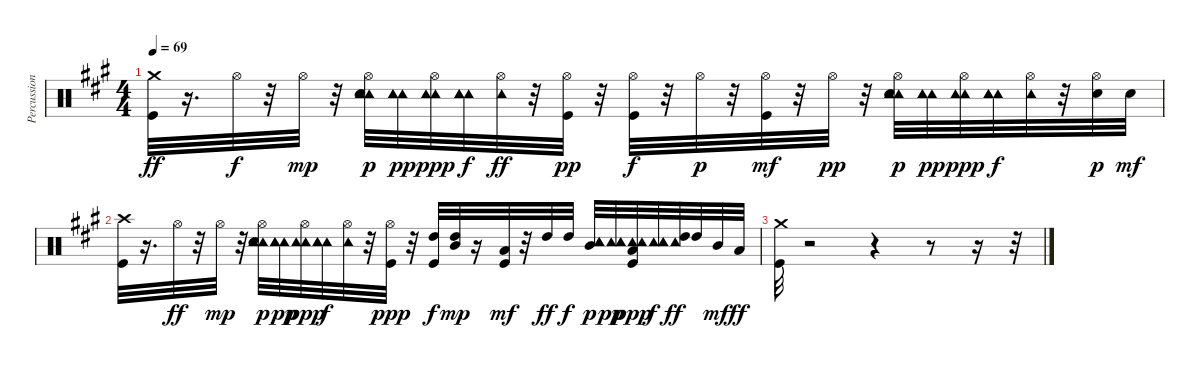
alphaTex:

\track ("Percussions" "Percussion") {instrument percussion}
\staff {score}
\articulation defaults
\ts (4 4)
\tempo 69
\clef neutral
\ks f#minor
("Crash medium (hit)" "Kick (hit)").32{dy ff} r.16{d} "Hi-Hat (open)".32{dy f} r.32 "Hi-Hat (open)".32{dy mp} r.32 ("Tambourine (hit)" "Tambourine (hit)" "Hi-Hat (open)" "Electric Snare (hit)" "Tambourine (hit)").32{dy p} ("Tambourine (hit)" "Tambourine (hit)" "Tambourine (hit)").32{dy pp} ("Tambourine (hit)" "Hi-Hat (open)" "Tambourine (hit)").32{dy ppp} ("Tambourine (hit)" "Tambourine (hit)" "Tambourine (hit)").32{dy f} ("Tambourine (hit)" "Hi-Hat (open)").32{dy ff} r.32 ("Kick (hit)" "Hi-Hat (open)").32{dy pp} r.32 ("Kick (hit)" "Hi-Hat (open)").32{dy f} r.32 "Hi-Hat (open)".32{dy p} r.32 ("Hi-Hat (open)" "Kick (hit)").32{dy mf} r.32 "Hi-Hat (open)".32{dy pp} r.32 ("Tambourine (hit)" "Tambourine (hit)" "Hi-Hat (open)" "Electric Snare (hit)" "Tambourine (hit)").32{dy p} ("Tambourine (hit)" "Tambourine (hit)" "Tambourine (hit)").32{dy pp} ("Tambourine (hit)" "Hi-Hat (open)" "Tambourine (hit)").32{dy ppp} ("Tambourine (hit)" "Tambourine (hit)" "Tambourine (hit)").32{dy f} ("Tambourine (hit)" "Hi-Hat (open)").32 r.32 ("Hi-Hat (open)" "Electric Snare (hit)").32{dy p} "Electric Snare (hit)".32{dy mf} |
("Crash high (hit)" "Kick (hit)").32 r.16{d} "Hi-Hat (open)".32{dy ff} r.32 "Hi-Hat (open)".32{dy mp} r.32 ("Tambourine (hit)" "Electric Snare (hit)" "Tambourine (hit)" "Hi-Hat (open)" "Tambourine (hit)").32{dy p} ("Tambourine (hit)" "Tambourine (hit)" "Tambourine (hit)").32{dy pp} ("Tambourine (hit)" "Hi-Hat (open)" "Tambourine (hit)").32{dy ppp} ("Tambourine (hit)" "Tambourine (hit)" "Tambourine (hit)").32{dy f} ("Tambourine (hit)" "Hi-Hat (open)").32 r.32 ("Hi-Hat (open)" "Kick (hit)").32{dy ppp} r.32 ("High Tom (hit)" "Kick (hit)").32{dy f} ("High Tom (hit)" "Mid Tom (hit)").32{dy mp} r.16 ("Low Tom (hit)" "Kick (hit)").32{dy mf} r.32 "High Tom (hit)".32{dy ff} "High Tom (hit)".32{dy f} ("Tambourine (hit)" "Mid Tom (hit)" "Tambourine (hit)" "Tambourine (hit)").32{dy p} ("Tambourine (hit)" "Tambourine (hit)" "Tambourine (hit)").32{dy pp} ("Low Tom (hit)" "Tambourine (hit)" "Kick (hit)" "Tambourine (hit)").32{dy ppp} ("Tambourine (hit)" "Tambourine (hit)" "Tambourine (hit)").32{dy f} ("Tambourine (hit)" "High Tom (hit)").32{dy ff} "High Tom (hit)".32 "Mid Tom (hit)".32{dy mf} "Low Tom (hit)".32{dy ff} |
("Crash medium (hit)" "Kick (hit)").32 r.2 r.4 r.8 r.16 r.32
